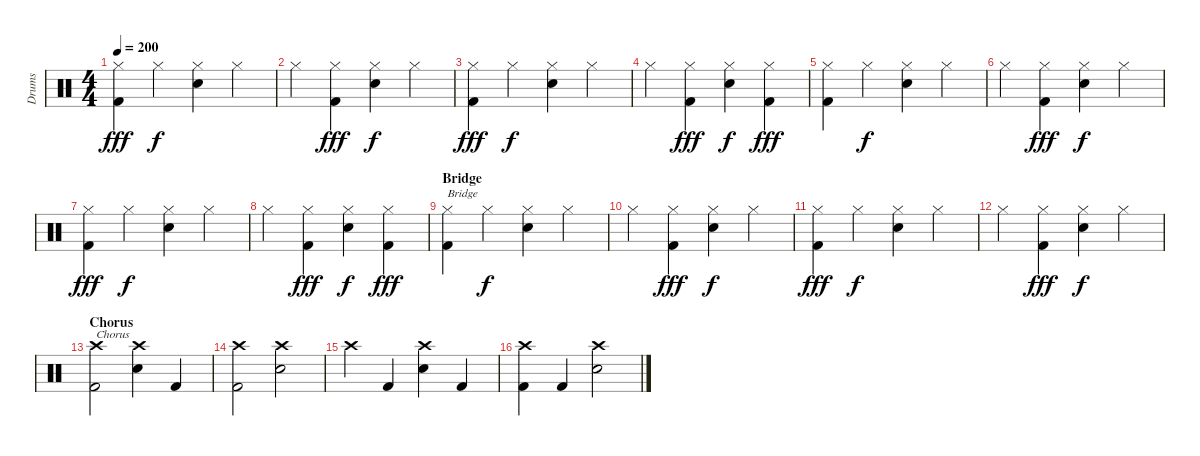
\track ("Drums" "Drums") {instrument percussion}
\staff {score}
\articulation defaults
\ts (4 4)
\tempo 200
\clef neutral
\ks c
("Hi-Hat (closed)" "Kick (hit) 2").4{dy fff} "Hi-Hat (closed)".4{dy f} ("Hi-Hat (closed)" "Electric Snare (hit)").4 "Hi-Hat (closed)".4 |
"Hi-Hat (closed)".4 ("Hi-Hat (closed)" "Kick (hit) 2").4{dy fff} ("Hi-Hat (closed)" "Electric Snare (hit)").4{dy f} "Hi-Hat (closed)".4 |
("Hi-Hat (closed)" "Kick (hit) 2").4{dy fff} "Hi-Hat (closed)".4{dy f} ("Hi-Hat (closed)" "Electric Snare (hit)").4 "Hi-Hat (closed)".4 |
"Hi-Hat (closed)".4 ("Hi-Hat (closed)" "Kick (hit) 2").4{dy fff} ("Hi-Hat (closed)" "Electric Snare (hit)").4{dy f} ("Hi-Hat (closed)" "Kick (hit) 2").4{dy fff} |
("Hi-Hat (closed)" "Kick (hit) 2").4 "Hi-Hat (closed)".4{dy f} ("Hi-Hat (closed)" "Electric Snare (hit)").4 "Hi-Hat (closed)".4 |
"Hi-Hat (closed)".4 ("Hi-Hat (closed)" "Kick (hit) 2").4{dy fff} ("Hi-Hat (closed)" "Electric Snare (hit)").4{dy f} "Hi-Hat (closed)".4 |
("Hi-Hat (closed)" "Kick (hit) 2").4{dy fff} "Hi-Hat (closed)".4{dy f} ("Hi-Hat (closed)" "Electric Snare (hit)").4 "Hi-Hat (closed)".4 |
"Hi-Hat (closed)".4 ("Hi-Hat (closed)" "Kick (hit) 2").4{dy fff} ("Hi-Hat (closed)" "Electric Snare (hit)").4{dy f} ("Hi-Hat (closed)" "Kick (hit) 2").4{dy fff} |
\section ("" "Bridge")
("Hi-Hat (closed)" "Kick (hit) 2").4{txt "Bridge"} "Hi-Hat (closed)".4{dy f} ("Hi-Hat (closed)" "Electric Snare (hit)").4 "Hi-Hat (closed)".4 |
"Hi-Hat (closed)".4 ("Hi-Hat (closed)" "Kick (hit) 2").4{dy fff} ("Hi-Hat (closed)" "Electric Snare (hit)").4{dy f} "Hi-Hat (closed)".4 |
("Hi-Hat (closed)" "Kick (hit) 2").4{dy fff} "Hi-Hat (closed)".4{dy f} ("Hi-Hat (closed)" "Electric Snare (hit)").4 "Hi-Hat (closed)".4 |
"Hi-Hat (closed)".4 ("Hi-Hat (closed)" "Kick (hit) 2").4{dy fff} ("Hi-Hat (closed)" "Electric Snare (hit)").4{dy f} "Hi-Hat (closed)".4 |
\section ("" "Chorus")
("Crash high (hit)" "Kick (hit) 2").2{txt "Chorus"} ("Crash high (hit)" "Electric Snare (hit)").4 "Kick (hit) 2".4 |
("Crash high (hit)" "Kick (hit) 2").2 ("Crash high (hit)" "Electric Snare (hit)").2 |
"Crash high (hit)".4 "Kick (hit) 2".4 ("Crash high (hit)" "Electric Snare (hit)").4 "Kick (hit) 2".4 |
("Crash high (hit)" "Kick (hit) 2").4 "Kick (hit) 2".4 ("Crash high (hit)" "Electric Snare (hit)").2
